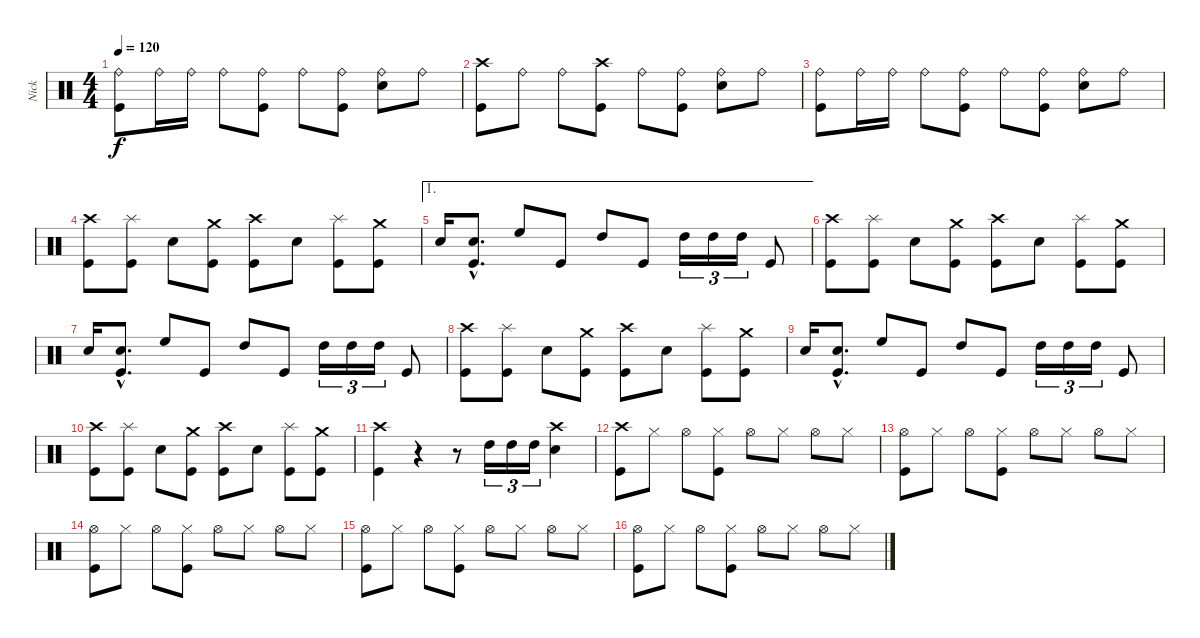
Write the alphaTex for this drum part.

\track ("Nick" "Nick") {instrument percussion}
\staff {score}
\articulation defaults
\ts (4 4)
\tempo 120
\clef neutral
\ks c
("Kick (hit)" "Ride (bell)").8{dy f} "Ride (bell)".16 "Ride (bell)".16 "Ride (bell)".8 ("Kick (hit)" "Ride (bell)").8 "Ride (bell)".8 ("Kick (hit)" "Ride (bell)").8 ("Ride (bell)" "Snare (hit) 2").8 "Ride (bell)".8 |
("Kick (hit)" "Crash high (hit)").8 "Ride (bell)".8 "Ride (bell)".8 ("Kick (hit)" "Crash high (hit)").8 "Ride (bell)".8 ("Kick (hit)" "Ride (bell)").8 ("Ride (bell)" "Snare (hit) 2").8 "Ride (bell)".8 |
("Kick (hit)" "Ride (bell)").8 "Ride (bell)".16 "Ride (bell)".16 "Ride (bell)".8 ("Kick (hit)" "Ride (bell)").8 "Ride (bell)".8 ("Kick (hit)" "Ride (bell)").8 ("Ride (bell)" "Snare (hit) 2").8 "Ride (bell)".8 |
("Kick (hit)" "Crash high (hit)").8 ("Kick (hit)" "Splash (hit)").8 "Snare (hit) 2".8 ("Kick (hit)" "Crash medium (hit)").8 ("Kick (hit)" "Crash high (hit)").8 "Snare (hit) 2".8 ("Kick (hit)" "Splash (hit)").8 ("Kick (hit)" "Crash medium (hit)").8 |
\ae 1 "Snare (hit) 2".16
("Kick (hit)"{hac} "Snare (hit) 2"{hac}).8{d} "High Floor Tom (hit)".8 "Kick (hit)".8 "High Tom (hit)".8 "Kick (hit)".8 "High Tom (hit)".16{tu (3 2)} "High Tom (hit)".16{tu (3 2)} "High Tom (hit)".16{tu (3 2)} "Kick (hit)".8 |
("Kick (hit)" "Crash high (hit)").8 ("Kick (hit)" "Splash (hit)").8 "Snare (hit) 2".8 ("Kick (hit)" "Crash medium (hit)").8 ("Kick (hit)" "Crash high (hit)").8 "Snare (hit) 2".8 ("Kick (hit)" "Splash (hit)").8 ("Kick (hit)" "Crash medium (hit)").8 |
"Snare (hit) 2".16 ("Kick (hit)"{hac} "Snare (hit) 2"{hac}).8{d} "High Floor Tom (hit)".8 "Kick (hit)".8 "High Tom (hit)".8 "Kick (hit)".8 "High Tom (hit)".16{tu (3 2)} "High Tom (hit)".16{tu (3 2)} "High Tom (hit)".16{tu (3 2)} "Kick (hit)".8 |
("Kick (hit)" "Crash high (hit)").8 ("Kick (hit)" "Splash (hit)").8 "Snare (hit) 2".8 ("Kick (hit)" "Crash medium (hit)").8 ("Kick (hit)" "Crash high (hit)").8 "Snare (hit) 2".8 ("Kick (hit)" "Splash (hit)").8 ("Kick (hit)" "Crash medium (hit)").8 |
"Snare (hit) 2".16 ("Kick (hit)"{hac} "Snare (hit) 2"{hac}).8{d} "High Floor Tom (hit)".8 "Kick (hit)".8 "High Tom (hit)".8 "Kick (hit)".8 "High Tom (hit)".16{tu (3 2)} "High Tom (hit)".16{tu (3 2)} "High Tom (hit)".16{tu (3 2)} "Kick (hit)".8 |
("Kick (hit)" "Crash high (hit)").8 ("Kick (hit)" "Splash (hit)").8 "Snare (hit) 2".8 ("Kick (hit)" "Crash medium (hit)").8 ("Kick (hit)" "Crash high (hit)").8 "Snare (hit) 2".8 ("Kick (hit)" "Splash (hit)").8 ("Kick (hit)" "Crash medium (hit)").8 |
("Kick (hit)" "Crash high (hit)").4 r.4 r.8 "High Tom (hit)".16{tu (3 2)} "High Tom (hit)".16{tu (3 2)} "High Tom (hit)".16{tu (3 2)} ("Crash high (hit)" "Snare (hit) 2").4 |
("Kick (hit)" "Crash high (hit)").8 "Hi-Hat (closed)".8 "Hi-Hat (open)".8 ("Kick (hit)" "Hi-Hat (closed)").8 "Hi-Hat (open)".8 "Hi-Hat (closed)".8 "Hi-Hat (open)".8 "Hi-Hat (closed)".8 |
("Kick (hit)" "Hi-Hat (open)").8 "Hi-Hat (closed)".8 "Hi-Hat (open)".8 ("Kick (hit)" "Hi-Hat (closed)").8 "Hi-Hat (open)".8 "Hi-Hat (closed)".8 "Hi-Hat (open)".8 "Hi-Hat (closed)".8 |
("Kick (hit)" "Hi-Hat (open)").8 "Hi-Hat (closed)".8 "Hi-Hat (open)".8 ("Kick (hit)" "Hi-Hat (closed)").8 "Hi-Hat (open)".8 "Hi-Hat (closed)".8 "Hi-Hat (open)".8 "Hi-Hat (closed)".8 |
("Kick (hit)" "Hi-Hat (open)").8 "Hi-Hat (closed)".8 "Hi-Hat (open)".8 ("Kick (hit)" "Hi-Hat (closed)").8 "Hi-Hat (open)".8 "Hi-Hat (closed)".8 "Hi-Hat (open)".8 "Hi-Hat (closed)".8 |
("Kick (hit)" "Hi-Hat (open)").8 "Hi-Hat (closed)".8 "Hi-Hat (open)".8 ("Kick (hit)" "Hi-Hat (closed)").8 "Hi-Hat (open)".8 "Hi-Hat (closed)".8 "Hi-Hat (open)".8 "Hi-Hat (closed)".8
